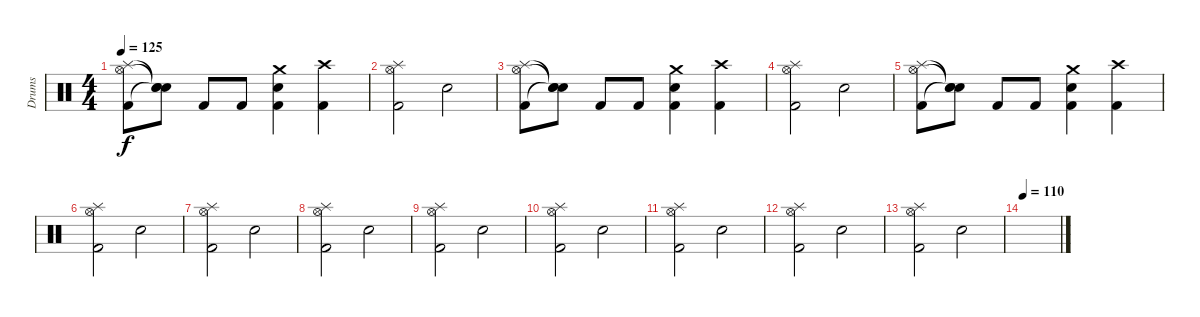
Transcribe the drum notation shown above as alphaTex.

\track ("Drums" "Drums") {instrument percussion}
\staff {score}
\articulation defaults
\ts (4 4)
\tempo 125
\clef neutral
\ks c
("Kick (hit) 2" "Splash (hit)" "Hi-Hat (open)").8{dy f} ("Snare (hit)"{t} "Snare (hit)"{t} "Snare (hit) 2"{t}).8 "Kick (hit) 2".8 "Kick (hit) 2".8 ("Snare (hit) 2" "Crash medium (hit)" "Kick (hit) 2").4 ("Crash high (hit)" "Kick (hit) 2").4 |
("Kick (hit) 2" "Splash (hit)" "Hi-Hat (open)").2 "Snare (hit) 2".2 |
("Kick (hit) 2" "Splash (hit)" "Hi-Hat (open)").8 ("Snare (hit)"{t} "Snare (hit)"{t} "Snare (hit) 2"{t}).8 "Kick (hit) 2".8 "Kick (hit) 2".8 ("Snare (hit) 2" "Crash medium (hit)" "Kick (hit) 2").4 ("Crash high (hit)" "Kick (hit) 2").4 |
("Kick (hit) 2" "Splash (hit)" "Hi-Hat (open)").2 "Snare (hit) 2".2 |
("Kick (hit) 2" "Splash (hit)" "Hi-Hat (open)").8 ("Snare (hit)"{t} "Snare (hit)"{t} "Snare (hit) 2"{t}).8 "Kick (hit) 2".8 "Kick (hit) 2".8 ("Snare (hit) 2" "Crash medium (hit)" "Kick (hit) 2").4 ("Crash high (hit)" "Kick (hit) 2").4 |
("Kick (hit) 2" "Splash (hit)" "Hi-Hat (open)").2 "Snare (hit) 2".2 |
("Kick (hit) 2" "Splash (hit)" "Hi-Hat (open)").2 "Snare (hit) 2".2 |
("Kick (hit) 2" "Splash (hit)" "Hi-Hat (open)").2 "Snare (hit) 2".2 |
("Kick (hit) 2" "Splash (hit)" "Hi-Hat (open)").2 "Snare (hit) 2".2 |
("Kick (hit) 2" "Splash (hit)" "Hi-Hat (open)").2 "Snare (hit) 2".2 |
("Kick (hit) 2" "Splash (hit)" "Hi-Hat (open)").2 "Snare (hit) 2".2 |
("Kick (hit) 2" "Splash (hit)" "Hi-Hat (open)").2 "Snare (hit) 2".2 |
("Kick (hit) 2" "Splash (hit)" "Hi-Hat (open)").2 "Snare (hit) 2".2 |
\tempo 110
